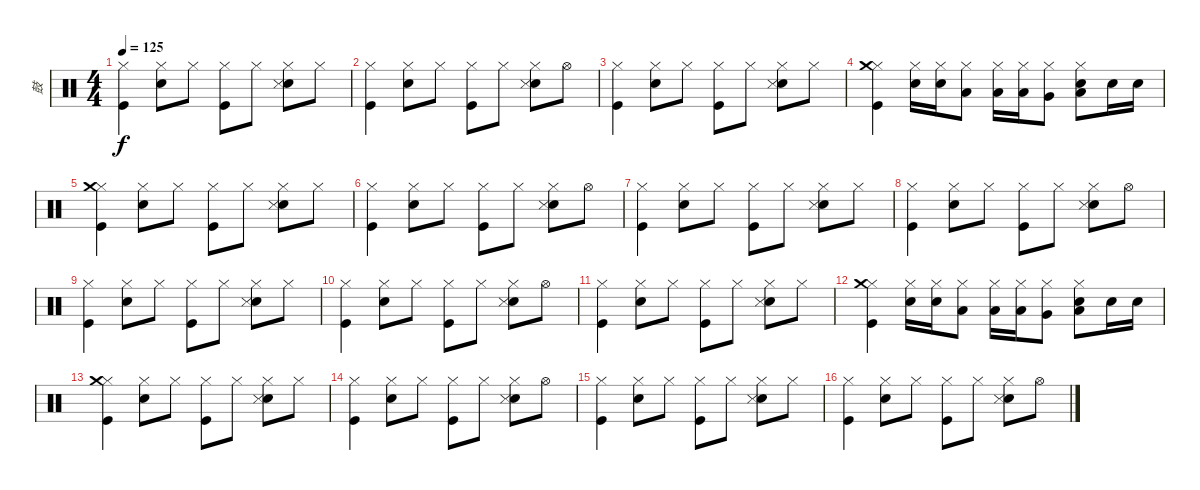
\track ("鼓" "鼓") {instrument percussion}
\staff {score}
\articulation defaults
\ts (4 4)
\tempo 125
\clef neutral
\ks c
("Kick (hit)" "Hi-Hat (closed)").4{dy f} ("Hi-Hat (closed)" "Electric Snare (hit)").8 "Hi-Hat (closed)".8 ("Kick (hit)" "Hi-Hat (closed)").8 "Hi-Hat (closed)".8 ("Hi-Hat (closed)" "Electric Snare (hit)" "Snare (side stick) 3").8 "Hi-Hat (closed)".8 |
("Kick (hit)" "Hi-Hat (closed)").4 ("Hi-Hat (closed)" "Electric Snare (hit)").8 "Hi-Hat (closed)".8 ("Kick (hit)" "Hi-Hat (closed)").8 "Hi-Hat (closed)".8 ("Hi-Hat (closed)" "Electric Snare (hit)" "Snare (side stick) 3").8 "Hi-Hat (open)".8 |
("Kick (hit)" "Hi-Hat (closed)").4 ("Hi-Hat (closed)" "Electric Snare (hit)").8 "Hi-Hat (closed)".8 ("Kick (hit)" "Hi-Hat (closed)").8 "Hi-Hat (closed)".8 ("Hi-Hat (closed)" "Electric Snare (hit)" "Snare (side stick) 3").8 "Hi-Hat (closed)".8 |
("Kick (hit)" "Hi-Hat (closed)" "Crash medium (hit)").4 ("Hi-Hat (closed)" "Electric Snare (hit)").16 ("Hi-Hat (closed)" "Electric Snare (hit)").16 ("Hi-Hat (closed)" "Low Tom (hit)").8 ("Hi-Hat (closed)" "Low Tom (hit)").16 ("Hi-Hat (closed)" "Low Tom (hit)").16 ("Hi-Hat (closed)" "Very Low Tom (hit)").8 ("Electric Snare (hit)" "Hi-Hat (closed)" "Low Floor Tom (hit)").8 "Electric Snare (hit)".16 "Electric Snare (hit)".16 |
("Kick (hit)" "Hi-Hat (closed)" "Crash medium (hit)").4 ("Hi-Hat (closed)" "Electric Snare (hit)").8 "Hi-Hat (closed)".8 ("Kick (hit)" "Hi-Hat (closed)").8 "Hi-Hat (closed)".8 ("Hi-Hat (closed)" "Electric Snare (hit)" "Snare (side stick) 3").8 "Hi-Hat (closed)".8 |
("Kick (hit)" "Hi-Hat (closed)").4 ("Hi-Hat (closed)" "Electric Snare (hit)").8 "Hi-Hat (closed)".8 ("Kick (hit)" "Hi-Hat (closed)").8 "Hi-Hat (closed)".8 ("Hi-Hat (closed)" "Electric Snare (hit)" "Snare (side stick) 3").8 "Hi-Hat (open)".8 |
("Kick (hit)" "Hi-Hat (closed)").4 ("Hi-Hat (closed)" "Electric Snare (hit)").8 "Hi-Hat (closed)".8 ("Kick (hit)" "Hi-Hat (closed)").8 "Hi-Hat (closed)".8 ("Hi-Hat (closed)" "Electric Snare (hit)" "Snare (side stick) 3").8 "Hi-Hat (closed)".8 |
("Kick (hit)" "Hi-Hat (closed)").4 ("Hi-Hat (closed)" "Electric Snare (hit)").8 "Hi-Hat (closed)".8 ("Kick (hit)" "Hi-Hat (closed)").8 "Hi-Hat (closed)".8 ("Hi-Hat (closed)" "Electric Snare (hit)" "Snare (side stick) 3").8 "Hi-Hat (open)".8 |
("Kick (hit)" "Hi-Hat (closed)").4 ("Hi-Hat (closed)" "Electric Snare (hit)").8 "Hi-Hat (closed)".8 ("Kick (hit)" "Hi-Hat (closed)").8 "Hi-Hat (closed)".8 ("Hi-Hat (closed)" "Electric Snare (hit)" "Snare (side stick) 3").8 "Hi-Hat (closed)".8 |
("Kick (hit)" "Hi-Hat (closed)").4 ("Hi-Hat (closed)" "Electric Snare (hit)").8 "Hi-Hat (closed)".8 ("Kick (hit)" "Hi-Hat (closed)").8 "Hi-Hat (closed)".8 ("Hi-Hat (closed)" "Electric Snare (hit)" "Snare (side stick) 3").8 "Hi-Hat (open)".8 |
("Kick (hit)" "Hi-Hat (closed)").4 ("Hi-Hat (closed)" "Electric Snare (hit)").8 "Hi-Hat (closed)".8 ("Kick (hit)" "Hi-Hat (closed)").8 "Hi-Hat (closed)".8 ("Hi-Hat (closed)" "Electric Snare (hit)" "Snare (side stick) 3").8 "Hi-Hat (closed)".8 |
("Kick (hit)" "Hi-Hat (closed)" "Crash medium (hit)").4 ("Hi-Hat (closed)" "Electric Snare (hit)").16 ("Hi-Hat (closed)" "Electric Snare (hit)").16 ("Hi-Hat (closed)" "Low Tom (hit)").8 ("Hi-Hat (closed)" "Low Tom (hit)").16 ("Hi-Hat (closed)" "Low Tom (hit)").16 ("Hi-Hat (closed)" "Very Low Tom (hit)").8 ("Electric Snare (hit)" "Hi-Hat (closed)" "Low Floor Tom (hit)").8 "Electric Snare (hit)".16 "Electric Snare (hit)".16 |
("Kick (hit)" "Hi-Hat (closed)" "Crash medium (hit)").4 ("Hi-Hat (closed)" "Electric Snare (hit)").8 "Hi-Hat (closed)".8 ("Kick (hit)" "Hi-Hat (closed)").8 "Hi-Hat (closed)".8 ("Hi-Hat (closed)" "Electric Snare (hit)" "Snare (side stick) 3").8 "Hi-Hat (closed)".8 |
("Kick (hit)" "Hi-Hat (closed)").4 ("Hi-Hat (closed)" "Electric Snare (hit)").8 "Hi-Hat (closed)".8 ("Kick (hit)" "Hi-Hat (closed)").8 "Hi-Hat (closed)".8 ("Hi-Hat (closed)" "Electric Snare (hit)" "Snare (side stick) 3").8 "Hi-Hat (open)".8 |
("Kick (hit)" "Hi-Hat (closed)").4 ("Hi-Hat (closed)" "Electric Snare (hit)").8 "Hi-Hat (closed)".8 ("Kick (hit)" "Hi-Hat (closed)").8 "Hi-Hat (closed)".8 ("Hi-Hat (closed)" "Electric Snare (hit)" "Snare (side stick) 3").8 "Hi-Hat (closed)".8 |
("Kick (hit)" "Hi-Hat (closed)").4 ("Hi-Hat (closed)" "Electric Snare (hit)").8 "Hi-Hat (closed)".8 ("Kick (hit)" "Hi-Hat (closed)").8 "Hi-Hat (closed)".8 ("Hi-Hat (closed)" "Electric Snare (hit)" "Snare (side stick) 3").8 "Hi-Hat (open)".8
